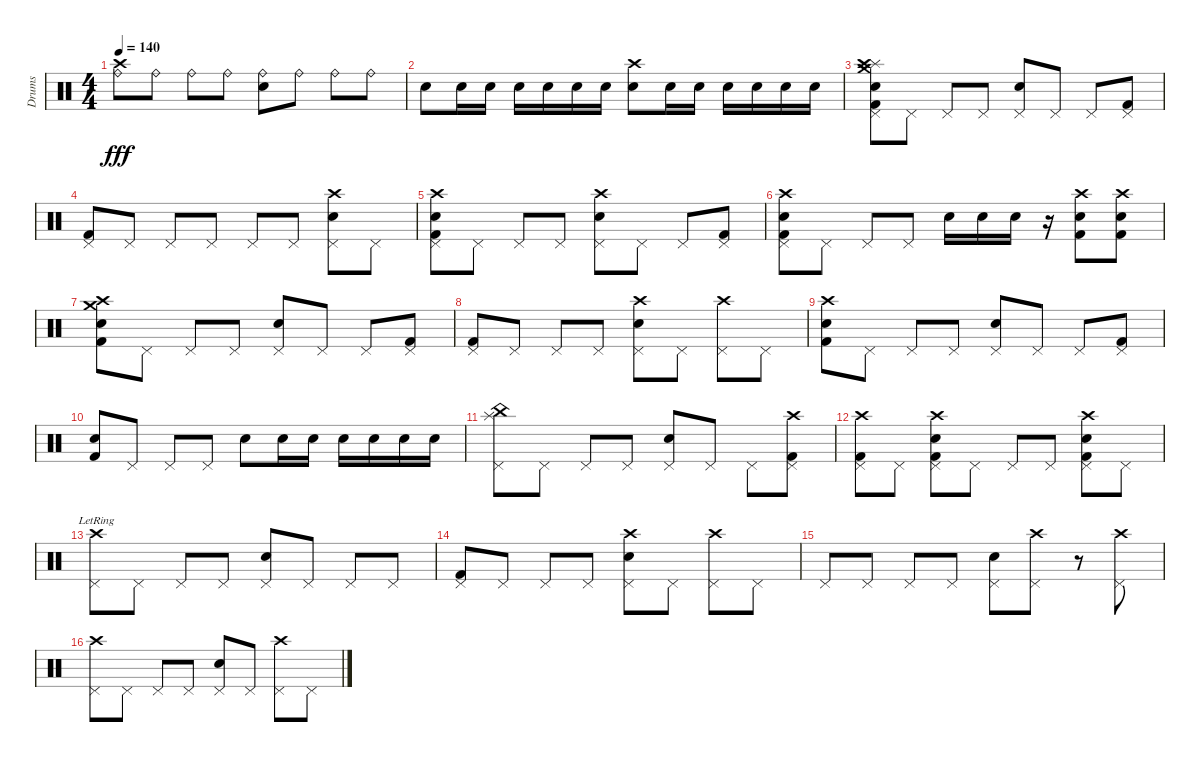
\track ("Drums" "Drums") {instrument percussion}
\staff {score}
\articulation defaults
\ts (4 4)
\tempo 140
\clef neutral
\ks c
("Crash high (hit)" "Ride (bell)").8{dy fff} "Ride (bell)".8 "Ride (bell)".8 "Ride (bell)".8 ("Ride (bell)" "Snare (hit) 2").8 "Ride (bell)".8 "Ride (bell)".8 "Ride (bell)".8 |
"Snare (hit) 2".8 "Snare (hit) 2".16 "Snare (hit) 2".16 "Snare (hit) 2".16 "Snare (hit) 2".16 "Snare (hit) 2".16 "Snare (hit) 2".16 ("Crash high (hit)" "Snare (hit) 2").8 "Snare (hit) 2".16 "Snare (hit) 2".16 "Snare (hit) 2".16 "Snare (hit) 2".16 "Snare (hit) 2".16 "Snare (hit) 2".16 |
("Crash medium (hit)" "Splash (hit)" "Pedal Hi-Hat (hit)" "Crash high (hit)" "Snare (hit) 2" "Kick (hit) 2").8 "Pedal Hi-Hat (hit)".8 "Pedal Hi-Hat (hit)".8 "Pedal Hi-Hat (hit)".8 ("Pedal Hi-Hat (hit)" "Snare (hit) 2").8 "Pedal Hi-Hat (hit)".8 "Pedal Hi-Hat (hit)".8 ("Pedal Hi-Hat (hit)" "Kick (hit) 2").8 |
("Pedal Hi-Hat (hit)" "Kick (hit) 2").8 "Pedal Hi-Hat (hit)".8 "Pedal Hi-Hat (hit)".8 "Pedal Hi-Hat (hit)".8 "Pedal Hi-Hat (hit)".8 "Pedal Hi-Hat (hit)".8 ("Crash high (hit)" "Pedal Hi-Hat (hit)" "Snare (hit) 2").8 "Pedal Hi-Hat (hit)".8 |
("Crash high (hit)" "Pedal Hi-Hat (hit)" "Snare (hit) 2" "Kick (hit) 2").8 "Pedal Hi-Hat (hit)".8 "Pedal Hi-Hat (hit)".8 "Pedal Hi-Hat (hit)".8 ("Crash high (hit)" "Pedal Hi-Hat (hit)" "Snare (hit) 2").8 "Pedal Hi-Hat (hit)".8 "Pedal Hi-Hat (hit)".8 ("Pedal Hi-Hat (hit)" "Kick (hit) 2").8 |
("Crash high (hit)" "Pedal Hi-Hat (hit)" "Snare (hit) 2" "Kick (hit) 2").8 "Pedal Hi-Hat (hit)".8 "Pedal Hi-Hat (hit)".8 "Pedal Hi-Hat (hit)".8 "Snare (hit) 2".16 "Snare (hit) 2".16 "Snare (hit) 2".16 r.16 ("Crash high (hit)" "Snare (hit) 2" "Kick (hit) 2").8 ("Crash high (hit)" "Snare (hit) 2" "Kick (hit) 2").8 |
("Crash medium (hit)" "Crash high (hit)" "Snare (hit) 2" "Kick (hit) 2").8 "Pedal Hi-Hat (hit)".8 "Pedal Hi-Hat (hit)".8 "Pedal Hi-Hat (hit)".8 ("Pedal Hi-Hat (hit)" "Snare (hit) 2").8 "Pedal Hi-Hat (hit)".8 "Pedal Hi-Hat (hit)".8 ("Pedal Hi-Hat (hit)" "Kick (hit) 2").8 |
("Pedal Hi-Hat (hit)" "Kick (hit) 2").8 "Pedal Hi-Hat (hit)".8 "Pedal Hi-Hat (hit)".8 "Pedal Hi-Hat (hit)".8 ("Crash high (hit)" "Pedal Hi-Hat (hit)" "Snare (hit) 2").8 "Pedal Hi-Hat (hit)".8 ("Crash high (hit)" "Pedal Hi-Hat (hit)").8 "Pedal Hi-Hat (hit)".8 |
("Crash high (hit)" "Snare (hit) 2" "Kick (hit) 2").8 "Pedal Hi-Hat (hit)".8 "Pedal Hi-Hat (hit)".8 "Pedal Hi-Hat (hit)".8 ("Pedal Hi-Hat (hit)" "Snare (hit) 2").8 "Pedal Hi-Hat (hit)".8 "Pedal Hi-Hat (hit)".8 ("Pedal Hi-Hat (hit)" "Kick (hit) 2").8 |
("Snare (hit) 2" "Kick (hit) 2").8 "Pedal Hi-Hat (hit)".8 "Pedal Hi-Hat (hit)".8 "Pedal Hi-Hat (hit)".8 "Snare (hit) 2".8 "Snare (hit) 2".16 "Snare (hit) 2".16 "Snare (hit) 2".16 "Snare (hit) 2".16 "Snare (hit) 2".16 "Snare (hit) 2".16 |
("China (hit)" "Splash (hit)" "Pedal Hi-Hat (hit)").8 "Pedal Hi-Hat (hit)".8 "Pedal Hi-Hat (hit)".8 "Pedal Hi-Hat (hit)".8 ("Pedal Hi-Hat (hit)" "Snare (hit) 2").8 "Pedal Hi-Hat (hit)".8 "Pedal Hi-Hat (hit)".8 ("Crash high (hit)" "Pedal Hi-Hat (hit)" "Kick (hit) 2").8 |
("Crash high (hit)" "Pedal Hi-Hat (hit)" "Kick (hit) 2").8 "Pedal Hi-Hat (hit)".8 ("Snare (hit) 2" "Crash high (hit)" "Pedal Hi-Hat (hit)" "Kick (hit) 2").8 "Pedal Hi-Hat (hit)".8 "Pedal Hi-Hat (hit)".8 "Pedal Hi-Hat (hit)".8 ("Snare (hit) 2" "Crash high (hit)" "Pedal Hi-Hat (hit)" "Kick (hit) 2").8 "Pedal Hi-Hat (hit)".8 |
("Crash high (hit)"{lr} "Pedal Hi-Hat (hit)").8 "Pedal Hi-Hat (hit)".8 "Pedal Hi-Hat (hit)".8 "Pedal Hi-Hat (hit)".8 ("Pedal Hi-Hat (hit)" "Snare (hit) 2").8 "Pedal Hi-Hat (hit)".8 "Pedal Hi-Hat (hit)".8 "Pedal Hi-Hat (hit)".8 |
("Pedal Hi-Hat (hit)" "Kick (hit) 2").8 "Pedal Hi-Hat (hit)".8 "Pedal Hi-Hat (hit)".8 "Pedal Hi-Hat (hit)".8 ("Crash high (hit)" "Pedal Hi-Hat (hit)" "Snare (hit) 2").8 "Pedal Hi-Hat (hit)".8 ("Crash high (hit)" "Pedal Hi-Hat (hit)").8 "Pedal Hi-Hat (hit)".8 |
"Pedal Hi-Hat (hit)".8 "Pedal Hi-Hat (hit)".8 "Pedal Hi-Hat (hit)".8 "Pedal Hi-Hat (hit)".8 ("Pedal Hi-Hat (hit)" "Snare (hit) 2").8 ("Crash high (hit)" "Pedal Hi-Hat (hit)").8 r.8 ("Crash high (hit)" "Pedal Hi-Hat (hit)").8 |
("Crash high (hit)" "Pedal Hi-Hat (hit)").8 "Pedal Hi-Hat (hit)".8 "Pedal Hi-Hat (hit)".8 "Pedal Hi-Hat (hit)".8 ("Pedal Hi-Hat (hit)" "Snare (hit) 2").8 "Pedal Hi-Hat (hit)".8 ("Crash high (hit)" "Pedal Hi-Hat (hit)").8 "Pedal Hi-Hat (hit)".8
